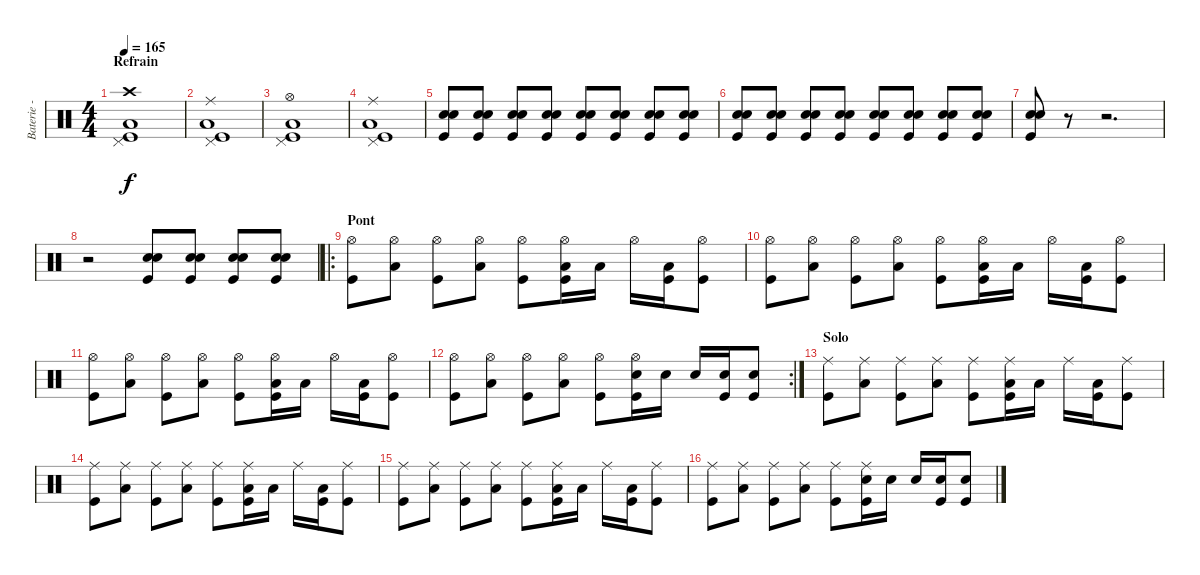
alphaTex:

\track ("Baterie - Alex" "Baterie - ") {instrument percussion}
\staff {score}
\articulation defaults
\ts (4 4)
\section ("" "Refrain")
\tempo 165
\clef neutral
\ks c
("Crash high (hit)" "Pedal Hi-Hat (hit)" "Low Tom (hit)" "Kick (hit)").1{dy f} |
("Ride (middle)" "Pedal Hi-Hat (hit)" "Low Tom (hit)" "Kick (hit)").1 |
("Hi-Hat (open)" "Pedal Hi-Hat (hit)" "Low Tom (hit)" "Kick (hit)").1 |
("Ride (middle)" "Pedal Hi-Hat (hit)" "Low Tom (hit)" "Kick (hit)").1 |
("Snare (hit) 2" "Electric Snare (hit)" "Kick (hit)").8 ("Snare (hit) 2" "Electric Snare (hit)" "Kick (hit)").8 ("Snare (hit) 2" "Electric Snare (hit)" "Kick (hit)").8 ("Snare (hit) 2" "Electric Snare (hit)" "Kick (hit)").8 ("Snare (hit) 2" "Electric Snare (hit)" "Kick (hit)").8 ("Snare (hit) 2" "Electric Snare (hit)" "Kick (hit)").8 ("Snare (hit) 2" "Electric Snare (hit)" "Kick (hit)").8 ("Snare (hit) 2" "Electric Snare (hit)" "Kick (hit)").8 |
("Snare (hit) 2" "Electric Snare (hit)" "Kick (hit)").8 ("Snare (hit) 2" "Electric Snare (hit)" "Kick (hit)").8 ("Snare (hit) 2" "Electric Snare (hit)" "Kick (hit)").8 ("Snare (hit) 2" "Electric Snare (hit)" "Kick (hit)").8 ("Snare (hit) 2" "Electric Snare (hit)" "Kick (hit)").8 ("Snare (hit) 2" "Electric Snare (hit)" "Kick (hit)").8 ("Snare (hit) 2" "Electric Snare (hit)" "Kick (hit)").8 ("Snare (hit) 2" "Electric Snare (hit)" "Kick (hit)").8 |
("Snare (hit) 2" "Electric Snare (hit)" "Kick (hit)").8 r.8 r.2{d} |
r.2 ("Snare (hit) 2" "Electric Snare (hit)" "Kick (hit)").8 ("Snare (hit) 2" "Electric Snare (hit)" "Kick (hit)").8 ("Snare (hit) 2" "Electric Snare (hit)" "Kick (hit)").8 ("Snare (hit) 2" "Electric Snare (hit)" "Kick (hit)").8 |
\ro
\section ("" "Pont")
("Hi-Hat (open)" "Kick (hit)").8 ("Hi-Hat (open)" "Low Tom (hit)").8 ("Hi-Hat (open)" "Kick (hit)").8 ("Hi-Hat (open)" "Low Tom (hit)").8 ("Hi-Hat (open)" "Kick (hit)").8 ("Hi-Hat (open)" "Low Tom (hit)" "Kick (hit)").16 "Low Tom (hit)".16 "Hi-Hat (open)".16 ("Low Tom (hit)" "Kick (hit)").16 ("Hi-Hat (open)" "Kick (hit)").8 |
("Hi-Hat (open)" "Kick (hit)").8 ("Hi-Hat (open)" "Low Tom (hit)").8 ("Hi-Hat (open)" "Kick (hit)").8 ("Hi-Hat (open)" "Low Tom (hit)").8 ("Hi-Hat (open)" "Kick (hit)").8 ("Hi-Hat (open)" "Low Tom (hit)" "Kick (hit)").16 "Low Tom (hit)".16 "Hi-Hat (open)".16 ("Low Tom (hit)" "Kick (hit)").16 ("Hi-Hat (open)" "Kick (hit)").8 |
("Hi-Hat (open)" "Kick (hit)").8 ("Hi-Hat (open)" "Low Tom (hit)").8 ("Hi-Hat (open)" "Kick (hit)").8 ("Hi-Hat (open)" "Low Tom (hit)").8 ("Hi-Hat (open)" "Kick (hit)").8 ("Hi-Hat (open)" "Low Tom (hit)" "Kick (hit)").16 "Low Tom (hit)".16 "Hi-Hat (open)".16 ("Low Tom (hit)" "Kick (hit)").16 ("Hi-Hat (open)" "Kick (hit)").8 |
\rc 2
("Hi-Hat (open)" "Kick (hit)").8 ("Hi-Hat (open)" "Low Tom (hit)").8 ("Hi-Hat (open)" "Kick (hit)").8 ("Hi-Hat (open)" "Low Tom (hit)").8 ("Hi-Hat (open)" "Kick (hit)").8 ("Hi-Hat (open)" "Electric Snare (hit)" "Kick (hit)").16 "Electric Snare (hit)".16 "Electric Snare (hit)".16 ("Electric Snare (hit)" "Kick (hit)").16 ("Electric Snare (hit)" "Kick (hit)").8 |
\section ("" "Solo")
("Ride (middle)" "Kick (hit)").8 ("Ride (middle)" "Low Tom (hit)").8 ("Ride (middle)" "Kick (hit)").8 ("Ride (middle)" "Low Tom (hit)").8 ("Ride (middle)" "Kick (hit)").8 ("Ride (middle)" "Low Tom (hit)" "Kick (hit)").16 "Low Tom (hit)".16 "Ride (middle)".16 ("Low Tom (hit)" "Kick (hit)").16 ("Ride (middle)" "Kick (hit)").8 |
("Ride (middle)" "Kick (hit)").8 ("Ride (middle)" "Low Tom (hit)").8 ("Ride (middle)" "Kick (hit)").8 ("Ride (middle)" "Low Tom (hit)").8 ("Ride (middle)" "Kick (hit)").8 ("Ride (middle)" "Low Tom (hit)" "Kick (hit)").16 "Low Tom (hit)".16 "Ride (middle)".16 ("Low Tom (hit)" "Kick (hit)").16 ("Ride (middle)" "Kick (hit)").8 |
("Ride (middle)" "Kick (hit)").8 ("Ride (middle)" "Low Tom (hit)").8 ("Ride (middle)" "Kick (hit)").8 ("Ride (middle)" "Low Tom (hit)").8 ("Ride (middle)" "Kick (hit)").8 ("Ride (middle)" "Low Tom (hit)" "Kick (hit)").16 "Low Tom (hit)".16 "Ride (middle)".16 ("Low Tom (hit)" "Kick (hit)").16 ("Ride (middle)" "Kick (hit)").8 |
("Ride (middle)" "Kick (hit)").8 ("Ride (middle)" "Low Tom (hit)").8 ("Ride (middle)" "Kick (hit)").8 ("Ride (middle)" "Low Tom (hit)").8 ("Ride (middle)" "Kick (hit)").8 ("Ride (middle)" "Electric Snare (hit)" "Kick (hit)").16 "Electric Snare (hit)".16 "Electric Snare (hit)".16 ("Electric Snare (hit)" "Kick (hit)").16 ("Electric Snare (hit)" "Kick (hit)").8
